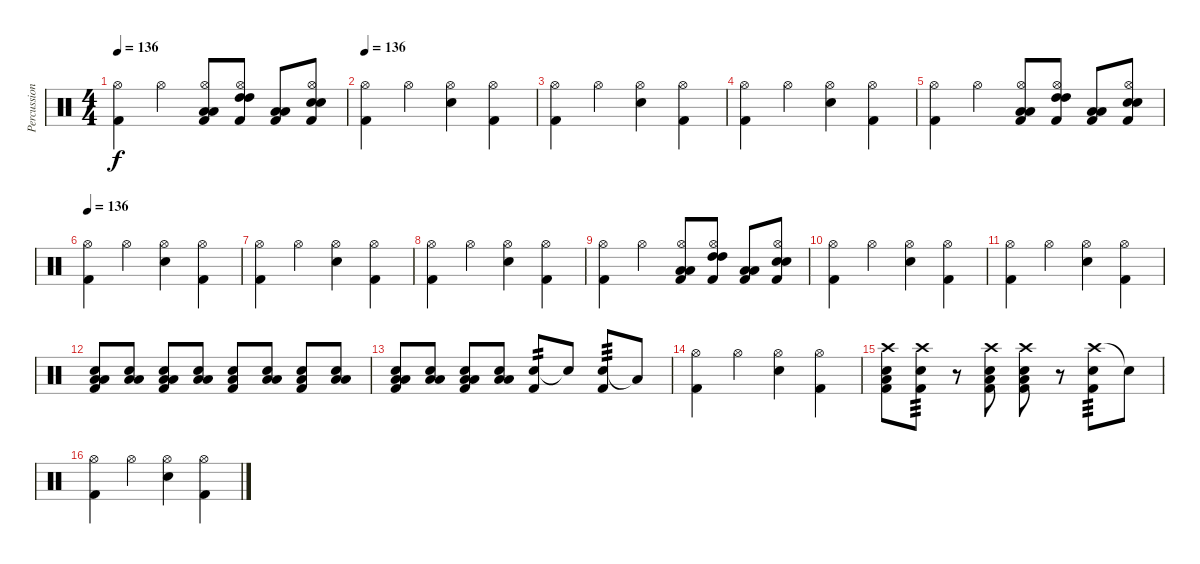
\track ("Percussioni" "Percussion") {instrument percussion}
\staff {score}
\articulation defaults
\ts (4 4)
\tempo 136
\clef neutral
\ks c
("Kick (hit) 2" "Hi-Hat (open)").4{dy f} "Hi-Hat (open)".4 ("Low Floor Tom (hit)" "Low Floor Tom (hit)" "Hi-Hat (open)" "Kick (hit) 2").8 ("High Tom (hit)" "High Tom (hit)" "Hi-Hat (open)" "Kick (hit) 2").8 ("Low Tom (hit)" "Low Tom (hit)" "Kick (hit) 2").8 ("Snare (hit) 2" "Snare (hit) 2" "Hi-Hat (open)" "Kick (hit) 2").8 |
\tempo 136
("Hi-Hat (open)" "Kick (hit) 2").4 "Hi-Hat (open)".4 ("Hi-Hat (open)" "Snare (hit) 2").4 ("Hi-Hat (open)" "Kick (hit) 2").4 |
("Hi-Hat (open)" "Kick (hit) 2").4 "Hi-Hat (open)".4 ("Hi-Hat (open)" "Snare (hit) 2").4 ("Hi-Hat (open)" "Kick (hit) 2").4 |
("Hi-Hat (open)" "Kick (hit) 2").4 "Hi-Hat (open)".4 ("Hi-Hat (open)" "Snare (hit) 2").4 ("Hi-Hat (open)" "Kick (hit) 2").4 |
("Kick (hit) 2" "Hi-Hat (open)").4 "Hi-Hat (open)".4 ("Low Floor Tom (hit)" "Low Floor Tom (hit)" "Hi-Hat (open)" "Kick (hit) 2").8 ("High Tom (hit)" "High Tom (hit)" "Hi-Hat (open)" "Kick (hit) 2").8 ("Low Tom (hit)" "Low Tom (hit)" "Kick (hit) 2").8 ("Snare (hit) 2" "Snare (hit) 2" "Hi-Hat (open)" "Kick (hit) 2").8 |
\tempo 136
("Hi-Hat (open)" "Kick (hit) 2").4 "Hi-Hat (open)".4 ("Hi-Hat (open)" "Snare (hit) 2").4 ("Hi-Hat (open)" "Kick (hit) 2").4 |
("Hi-Hat (open)" "Kick (hit) 2").4 "Hi-Hat (open)".4 ("Hi-Hat (open)" "Snare (hit) 2").4 ("Hi-Hat (open)" "Kick (hit) 2").4 |
("Hi-Hat (open)" "Kick (hit) 2").4 "Hi-Hat (open)".4 ("Hi-Hat (open)" "Snare (hit) 2").4 ("Hi-Hat (open)" "Kick (hit) 2").4 |
("Kick (hit) 2" "Hi-Hat (open)").4 "Hi-Hat (open)".4 ("Low Floor Tom (hit)" "Low Floor Tom (hit)" "Hi-Hat (open)" "Kick (hit) 2").8 ("High Tom (hit)" "High Tom (hit)" "Hi-Hat (open)" "Kick (hit) 2").8 ("Low Tom (hit)" "Low Tom (hit)" "Kick (hit) 2").8 ("Snare (hit) 2" "Snare (hit) 2" "Hi-Hat (open)" "Kick (hit) 2").8 |
("Hi-Hat (open)" "Kick (hit) 2").4 "Hi-Hat (open)".4 ("Hi-Hat (open)" "Snare (hit) 2").4 ("Hi-Hat (open)" "Kick (hit) 2").4 |
("Hi-Hat (open)" "Kick (hit) 2").4 "Hi-Hat (open)".4 ("Hi-Hat (open)" "Snare (hit) 2").4 ("Hi-Hat (open)" "Kick (hit) 2").4 |
("Low Floor Tom (hit)" "Low Floor Tom (hit)" "Snare (hit) 2" "Kick (hit) 2").8 ("Low Floor Tom (hit)" "Snare (hit) 2" "Low Floor Tom (hit)").8 ("Low Floor Tom (hit)" "Low Floor Tom (hit)" "Snare (hit) 2" "Kick (hit) 2").8 ("Low Floor Tom (hit)" "Snare (hit) 2" "Low Floor Tom (hit)").8 ("Low Floor Tom (hit)" "Snare (hit) 2" "Kick (hit) 2").8 ("Low Floor Tom (hit)" "Snare (hit) 2" "Low Floor Tom (hit)").8 ("Low Floor Tom (hit)" "Snare (hit) 2" "Kick (hit) 2").8 ("Low Floor Tom (hit)" "Snare (hit) 2" "Low Floor Tom (hit)").8 |
("Low Floor Tom (hit)" "Low Floor Tom (hit)" "Snare (hit) 2" "Kick (hit) 2").8 ("Low Floor Tom (hit)" "Snare (hit) 2" "Low Floor Tom (hit)").8 ("Low Floor Tom (hit)" "Low Floor Tom (hit)" "Snare (hit) 2" "Kick (hit) 2").8 ("Low Floor Tom (hit)" "Snare (hit) 2" "Low Floor Tom (hit)").8 ("Snare (hit) 2" "Kick (hit) 2").8{tp 2} "Snare (hit) 2"{t}.8 ("Snare (hit) 2" "Kick (hit) 2").8{tp 3} "Low Floor Tom (hit)"{t}.8 |
("Hi-Hat (open)" "Kick (hit) 2").4 "Hi-Hat (open)".4 ("Hi-Hat (open)" "Snare (hit) 2").4 ("Hi-Hat (open)" "Kick (hit) 2").4 |
("Crash high (hit)" "Low Floor Tom (hit)" "Snare (hit) 2" "Kick (hit) 2").8 ("Crash high (hit)" "Snare (hit) 2" "Kick (hit) 2").8{tp 3} r.8 ("Crash high (hit)" "Low Floor Tom (hit)" "Snare (hit) 2" "Kick (hit) 2").8 ("Crash high (hit)" "Low Floor Tom (hit)" "Snare (hit) 2" "Kick (hit) 2").8 r.8 ("Crash high (hit)" "Snare (hit) 2" "Kick (hit) 2").8{tp 3} "Snare (hit)"{t}.8 |
("Hi-Hat (open)" "Kick (hit) 2").4 "Hi-Hat (open)".4 ("Hi-Hat (open)" "Snare (hit) 2").4 ("Hi-Hat (open)" "Kick (hit) 2").4
